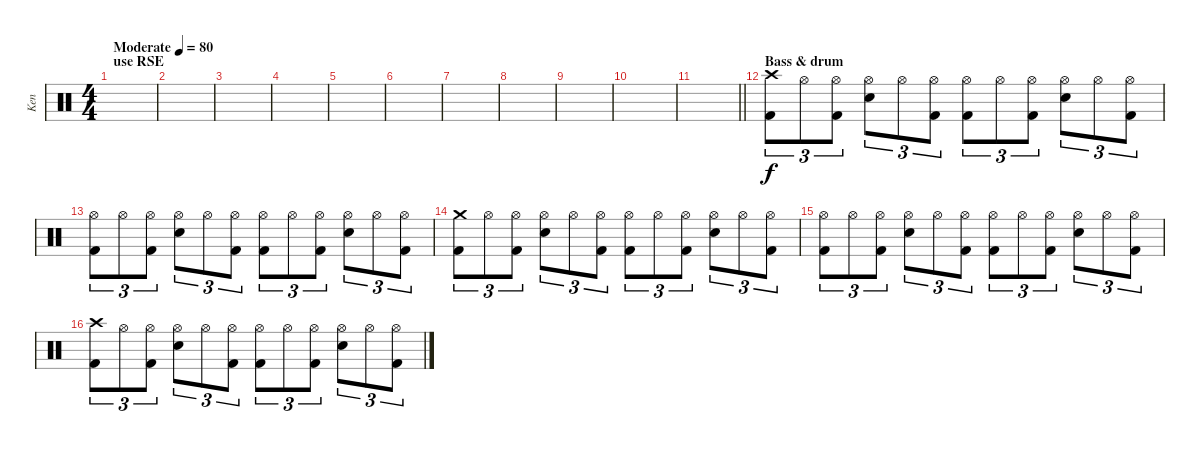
\track ("Ken" "Ken") {instrument percussion}
\staff {score}
\articulation defaults
\ts (4 4)
\section ("" "use RSE ")
\tempo (80 "Moderate")
\clef neutral
\ks c
|
|
|
|
|
|
|
|
|
|
\barLineRight lightlight
|
\section ("" "Bass & drum")
("Crash high (hit)" "Kick (hit) 2").8{tu (3 2)} "Hi-Hat (open)".8{tu (3 2)} ("Hi-Hat (open)" "Kick (hit) 2").8{tu (3 2)} ("Hi-Hat (open)" "Snare (hit) 2").8{tu (3 2)} "Hi-Hat (open)".8{tu (3 2)} ("Hi-Hat (open)" "Kick (hit) 2").8{tu (3 2)} ("Hi-Hat (open)" "Kick (hit) 2").8{tu (3 2)} "Hi-Hat (open)".8{tu (3 2)} ("Hi-Hat (open)" "Kick (hit) 2").8{tu (3 2)} ("Hi-Hat (open)" "Snare (hit) 2").8{tu (3 2)} "Hi-Hat (open)".8{tu (3 2)} ("Hi-Hat (open)" "Kick (hit) 2").8{tu (3 2)} |
("Hi-Hat (open)" "Kick (hit) 2").8{tu (3 2)} "Hi-Hat (open)".8{tu (3 2)} ("Hi-Hat (open)" "Kick (hit) 2").8{tu (3 2)} ("Hi-Hat (open)" "Snare (hit) 2").8{tu (3 2)} "Hi-Hat (open)".8{tu (3 2)} ("Hi-Hat (open)" "Kick (hit) 2").8{tu (3 2)} ("Hi-Hat (open)" "Kick (hit) 2").8{tu (3 2)} "Hi-Hat (open)".8{tu (3 2)} ("Hi-Hat (open)" "Kick (hit) 2").8{tu (3 2)} ("Hi-Hat (open)" "Snare (hit) 2").8{tu (3 2)} "Hi-Hat (open)".8{tu (3 2)} ("Hi-Hat (open)" "Kick (hit) 2").8{tu (3 2)} |
("Crash medium (hit)" "Kick (hit) 2").8{tu (3 2)} "Hi-Hat (open)".8{tu (3 2)} ("Hi-Hat (open)" "Kick (hit) 2").8{tu (3 2)} ("Hi-Hat (open)" "Snare (hit) 2").8{tu (3 2)} "Hi-Hat (open)".8{tu (3 2)} ("Hi-Hat (open)" "Kick (hit) 2").8{tu (3 2)} ("Hi-Hat (open)" "Kick (hit) 2").8{tu (3 2)} "Hi-Hat (open)".8{tu (3 2)} ("Hi-Hat (open)" "Kick (hit) 2").8{tu (3 2)} ("Hi-Hat (open)" "Snare (hit) 2").8{tu (3 2)} "Hi-Hat (open)".8{tu (3 2)} ("Hi-Hat (open)" "Kick (hit) 2").8{tu (3 2)} |
("Hi-Hat (open)" "Kick (hit) 2").8{tu (3 2)} "Hi-Hat (open)".8{tu (3 2)} ("Hi-Hat (open)" "Kick (hit) 2").8{tu (3 2)} ("Hi-Hat (open)" "Snare (hit) 2").8{tu (3 2)} "Hi-Hat (open)".8{tu (3 2)} ("Hi-Hat (open)" "Kick (hit) 2").8{tu (3 2)} ("Hi-Hat (open)" "Kick (hit) 2").8{tu (3 2)} "Hi-Hat (open)".8{tu (3 2)} ("Hi-Hat (open)" "Kick (hit) 2").8{tu (3 2)} ("Hi-Hat (open)" "Snare (hit) 2").8{tu (3 2)} "Hi-Hat (open)".8{tu (3 2)} ("Hi-Hat (open)" "Kick (hit) 2").8{tu (3 2)} |
("Crash high (hit)" "Kick (hit) 2").8{tu (3 2)} "Hi-Hat (open)".8{tu (3 2)} ("Hi-Hat (open)" "Kick (hit) 2").8{tu (3 2)} ("Hi-Hat (open)" "Snare (hit) 2").8{tu (3 2)} "Hi-Hat (open)".8{tu (3 2)} ("Hi-Hat (open)" "Kick (hit) 2").8{tu (3 2)} ("Hi-Hat (open)" "Kick (hit) 2").8{tu (3 2)} "Hi-Hat (open)".8{tu (3 2)} ("Hi-Hat (open)" "Kick (hit) 2").8{tu (3 2)} ("Hi-Hat (open)" "Snare (hit) 2").8{tu (3 2)} "Hi-Hat (open)".8{tu (3 2)} ("Hi-Hat (open)" "Kick (hit) 2").8{tu (3 2)}
